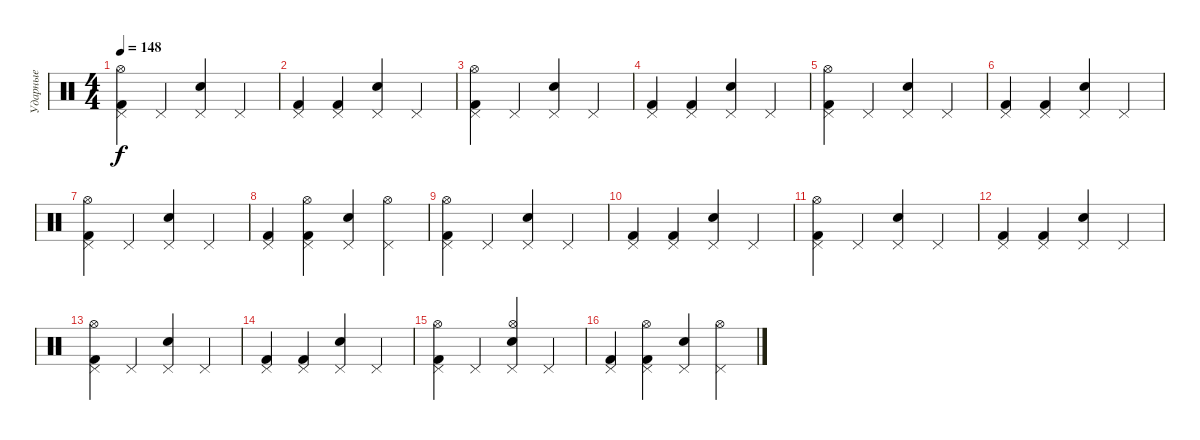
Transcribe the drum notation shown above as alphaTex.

\track ("Ударные" "Ударные") {instrument percussion}
\staff
\articulation defaults
\ts (4 4)
\tempo 148
\clef neutral
\ks c
("Kick (hit) 2" "Pedal Hi-Hat (hit)" "Hi-Hat (open)").4{dy f} "Pedal Hi-Hat (hit)".4 ("Snare (hit) 2" "Pedal Hi-Hat (hit)").4 "Pedal Hi-Hat (hit)".4 |
("Kick (hit) 2" "Pedal Hi-Hat (hit)").4 ("Kick (hit) 2" "Pedal Hi-Hat (hit)").4 ("Snare (hit) 2" "Pedal Hi-Hat (hit)").4 "Pedal Hi-Hat (hit)".4 |
("Kick (hit) 2" "Pedal Hi-Hat (hit)" "Hi-Hat (open)").4 "Pedal Hi-Hat (hit)".4 ("Snare (hit) 2" "Pedal Hi-Hat (hit)").4 "Pedal Hi-Hat (hit)".4 |
("Kick (hit) 2" "Pedal Hi-Hat (hit)").4 ("Kick (hit) 2" "Pedal Hi-Hat (hit)").4 ("Snare (hit) 2" "Pedal Hi-Hat (hit)").4 "Pedal Hi-Hat (hit)".4 |
("Kick (hit) 2" "Pedal Hi-Hat (hit)" "Hi-Hat (open)").4 "Pedal Hi-Hat (hit)".4 ("Snare (hit) 2" "Pedal Hi-Hat (hit)").4 "Pedal Hi-Hat (hit)".4 |
("Kick (hit) 2" "Pedal Hi-Hat (hit)").4 ("Kick (hit) 2" "Pedal Hi-Hat (hit)").4 ("Snare (hit) 2" "Pedal Hi-Hat (hit)").4 "Pedal Hi-Hat (hit)".4 |
("Kick (hit) 2" "Pedal Hi-Hat (hit)" "Hi-Hat (open)").4 "Pedal Hi-Hat (hit)".4 ("Snare (hit) 2" "Pedal Hi-Hat (hit)").4 "Pedal Hi-Hat (hit)".4 |
("Kick (hit) 2" "Pedal Hi-Hat (hit)").4 ("Kick (hit) 2" "Pedal Hi-Hat (hit)" "Hi-Hat (open)").4 ("Snare (hit) 2" "Pedal Hi-Hat (hit)").4 ("Pedal Hi-Hat (hit)" "Hi-Hat (open)").4 |
("Kick (hit) 2" "Pedal Hi-Hat (hit)" "Hi-Hat (open)").4 "Pedal Hi-Hat (hit)".4 ("Snare (hit) 2" "Pedal Hi-Hat (hit)").4 "Pedal Hi-Hat (hit)".4 |
("Kick (hit) 2" "Pedal Hi-Hat (hit)").4 ("Kick (hit) 2" "Pedal Hi-Hat (hit)").4 ("Snare (hit) 2" "Pedal Hi-Hat (hit)").4 "Pedal Hi-Hat (hit)".4 |
("Kick (hit) 2" "Pedal Hi-Hat (hit)" "Hi-Hat (open)").4 "Pedal Hi-Hat (hit)".4 ("Snare (hit) 2" "Pedal Hi-Hat (hit)").4 "Pedal Hi-Hat (hit)".4 |
("Kick (hit) 2" "Pedal Hi-Hat (hit)").4 ("Kick (hit) 2" "Pedal Hi-Hat (hit)").4 ("Snare (hit) 2" "Pedal Hi-Hat (hit)").4 "Pedal Hi-Hat (hit)".4 |
("Kick (hit) 2" "Pedal Hi-Hat (hit)" "Hi-Hat (open)").4 "Pedal Hi-Hat (hit)".4 ("Snare (hit) 2" "Pedal Hi-Hat (hit)").4 "Pedal Hi-Hat (hit)".4 |
("Kick (hit) 2" "Pedal Hi-Hat (hit)").4 ("Kick (hit) 2" "Pedal Hi-Hat (hit)").4 ("Snare (hit) 2" "Pedal Hi-Hat (hit)").4 "Pedal Hi-Hat (hit)".4 |
("Kick (hit) 2" "Pedal Hi-Hat (hit)" "Hi-Hat (open)").4 "Pedal Hi-Hat (hit)".4 ("Snare (hit) 2" "Pedal Hi-Hat (hit)" "Hi-Hat (open)").4 "Pedal Hi-Hat (hit)".4 |
("Kick (hit) 2" "Pedal Hi-Hat (hit)").4 ("Kick (hit) 2" "Pedal Hi-Hat (hit)" "Hi-Hat (open)").4 ("Snare (hit) 2" "Pedal Hi-Hat (hit)").4 ("Pedal Hi-Hat (hit)" "Hi-Hat (open)").4
